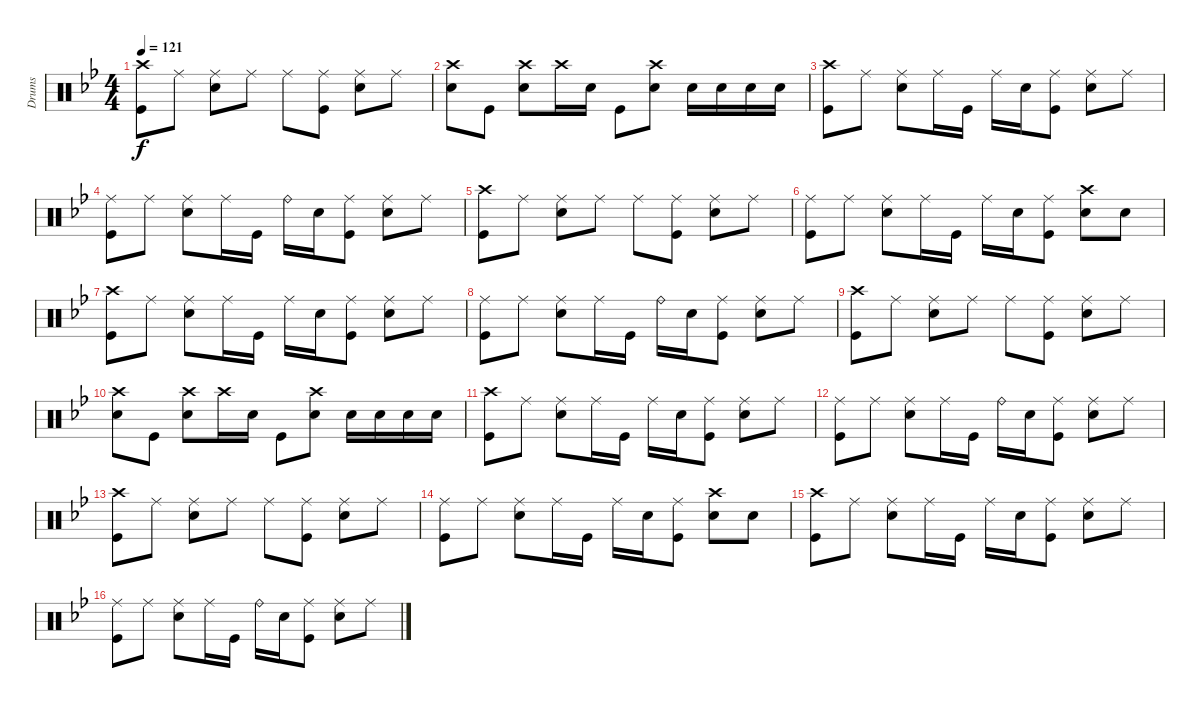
\track ("Drums" "Drums") {instrument percussion}
\staff {score}
\articulation defaults
\ts (4 4)
\tempo 121
\clef neutral
\ks bb
("Crash high (hit)" "Kick (hit)").8{dy f} "Ride (middle)".8 ("Ride (middle)" "Snare (hit) 2").8 "Ride (middle)".8 "Ride (middle)".8 ("Kick (hit)" "Ride (middle)").8 ("Snare (hit) 2" "Ride (middle)").8 "Ride (middle)".8 |
("Crash high (hit)" "Snare (hit) 2").8 "Kick (hit)".8 ("Crash high (hit)" "Snare (hit) 2").8 "Crash high (hit)".16 "Snare (hit) 2".16 "Kick (hit)".8 ("Snare (hit) 2" "Crash high (hit)").8 "Snare (hit) 2".16 "Snare (hit) 2".16 "Snare (hit) 2".16 "Snare (hit) 2".16 |
("Crash high (hit)" "Kick (hit)").8 "Ride (middle)".8 ("Ride (middle)" "Snare (hit) 2").8 "Ride (middle)".16 "Kick (hit)".16 "Ride (middle)".16 "Snare (hit) 2".16 ("Ride (middle)" "Kick (hit)").8 ("Ride (middle)" "Snare (hit) 2").8 "Ride (middle)".8 |
("Ride (middle)" "Kick (hit)").8 "Ride (middle)".8 ("Ride (middle)" "Snare (hit) 2").8 "Ride (middle)".16 "Kick (hit)".16 "Ride (bell)".16 "Snare (hit) 2".16 ("Ride (middle)" "Kick (hit)").8 ("Ride (middle)" "Snare (hit) 2").8 "Ride (middle)".8 |
("Crash high (hit)" "Kick (hit)").8 "Ride (middle)".8 ("Ride (middle)" "Snare (hit) 2").8 "Ride (middle)".8 "Ride (middle)".8 ("Kick (hit)" "Ride (middle)").8 ("Snare (hit) 2" "Ride (middle)").8 "Ride (middle)".8 |
("Ride (middle)" "Kick (hit)").8 "Ride (middle)".8 ("Ride (middle)" "Snare (hit) 2").8 "Ride (middle)".16 "Kick (hit)".16 "Ride (middle)".16 "Snare (hit) 2".16 ("Ride (middle)" "Kick (hit)").8 ("Crash high (hit)" "Snare (hit) 2").8 "Snare (hit) 2".8 |
("Crash high (hit)" "Kick (hit)").8 "Ride (middle)".8 ("Ride (middle)" "Snare (hit) 2").8 "Ride (middle)".16 "Kick (hit)".16 "Ride (middle)".16 "Snare (hit) 2".16 ("Ride (middle)" "Kick (hit)").8 ("Ride (middle)" "Snare (hit) 2").8 "Ride (middle)".8 |
("Ride (middle)" "Kick (hit)").8 "Ride (middle)".8 ("Ride (middle)" "Snare (hit) 2").8 "Ride (middle)".16 "Kick (hit)".16 "Ride (bell)".16 "Snare (hit) 2".16 ("Ride (middle)" "Kick (hit)").8 ("Ride (middle)" "Snare (hit) 2").8 "Ride (middle)".8 |
("Crash high (hit)" "Kick (hit)").8 "Ride (middle)".8 ("Ride (middle)" "Snare (hit) 2").8 "Ride (middle)".8 "Ride (middle)".8 ("Kick (hit)" "Ride (middle)").8 ("Snare (hit) 2" "Ride (middle)").8 "Ride (middle)".8 |
("Crash high (hit)" "Snare (hit) 2").8 "Kick (hit)".8 ("Crash high (hit)" "Snare (hit) 2").8 "Crash high (hit)".16 "Snare (hit) 2".16 "Kick (hit)".8 ("Snare (hit) 2" "Crash high (hit)").8 "Snare (hit) 2".16 "Snare (hit) 2".16 "Snare (hit) 2".16 "Snare (hit) 2".16 |
("Crash high (hit)" "Kick (hit)").8 "Ride (middle)".8 ("Ride (middle)" "Snare (hit) 2").8 "Ride (middle)".16 "Kick (hit)".16 "Ride (middle)".16 "Snare (hit) 2".16 ("Ride (middle)" "Kick (hit)").8 ("Ride (middle)" "Snare (hit) 2").8 "Ride (middle)".8 |
("Ride (middle)" "Kick (hit)").8 "Ride (middle)".8 ("Ride (middle)" "Snare (hit) 2").8 "Ride (middle)".16 "Kick (hit)".16 "Ride (bell)".16 "Snare (hit) 2".16 ("Ride (middle)" "Kick (hit)").8 ("Ride (middle)" "Snare (hit) 2").8 "Ride (middle)".8 |
("Crash high (hit)" "Kick (hit)").8 "Ride (middle)".8 ("Ride (middle)" "Snare (hit) 2").8 "Ride (middle)".8 "Ride (middle)".8 ("Kick (hit)" "Ride (middle)").8 ("Snare (hit) 2" "Ride (middle)").8 "Ride (middle)".8 |
("Ride (middle)" "Kick (hit)").8 "Ride (middle)".8 ("Ride (middle)" "Snare (hit) 2").8 "Ride (middle)".16 "Kick (hit)".16 "Ride (middle)".16 "Snare (hit) 2".16 ("Ride (middle)" "Kick (hit)").8 ("Crash high (hit)" "Snare (hit) 2").8 "Snare (hit) 2".8 |
("Crash high (hit)" "Kick (hit)").8 "Ride (middle)".8 ("Ride (middle)" "Snare (hit) 2").8 "Ride (middle)".16 "Kick (hit)".16 "Ride (middle)".16 "Snare (hit) 2".16 ("Ride (middle)" "Kick (hit)").8 ("Ride (middle)" "Snare (hit) 2").8 "Ride (middle)".8 |
("Ride (middle)" "Kick (hit)").8 "Ride (middle)".8 ("Ride (middle)" "Snare (hit) 2").8 "Ride (middle)".16 "Kick (hit)".16 "Ride (bell)".16 "Snare (hit) 2".16 ("Ride (middle)" "Kick (hit)").8 ("Ride (middle)" "Snare (hit) 2").8 "Ride (middle)".8
